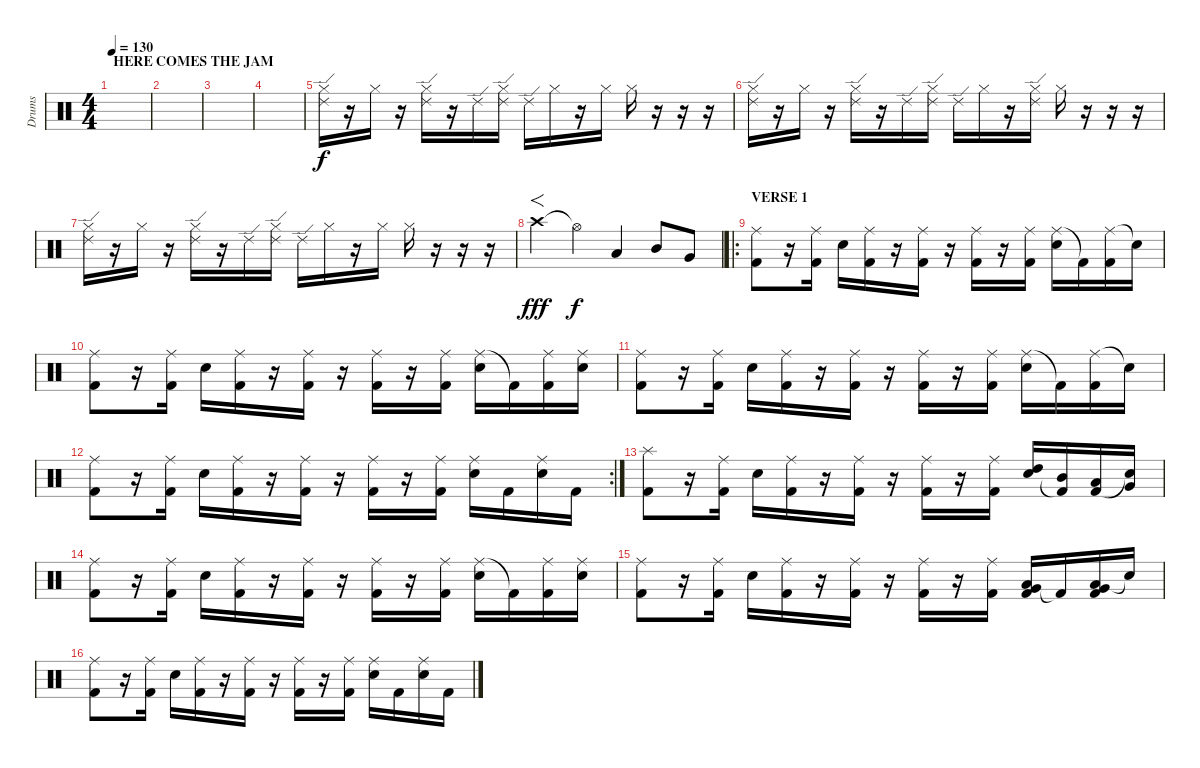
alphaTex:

\track ("Drums" "Drums") {instrument percussion}
\staff {score}
\articulation defaults
\ts (4 4)
\section ("" "HERE COMES THE JAM")
\tempo 130
\clef neutral
\ks c
|
|
|
|
("Ride (edge) 2" "Hi-Hat (closed)").16 r.16 "Hi-Hat (closed)".16 r.16 ("Ride (edge) 2" "Hi-Hat (closed)").16 r.16 "Ride (edge) 2".16 ("Ride (edge) 2" "Hi-Hat (closed)").16 "Ride (edge) 2".16 "Hi-Hat (closed)".16 r.16 "Hi-Hat (closed)".16 "Hi-Hat (closed)".16 r.16 r.16 r.16 |
("Ride (edge) 2" "Hi-Hat (closed)").16 r.16 "Hi-Hat (closed)".16 r.16 ("Ride (edge) 2" "Hi-Hat (closed)").16 r.16 "Ride (edge) 2".16 ("Ride (edge) 2" "Hi-Hat (closed)").16 "Ride (edge) 2".16 "Hi-Hat (closed)".16 r.16 ("Ride (edge) 2" "Hi-Hat (closed)").16 "Hi-Hat (closed)".16 r.16 r.16 r.16 |
("Ride (edge) 2" "Hi-Hat (closed)").16 r.16 "Hi-Hat (closed)".16 r.16 ("Ride (edge) 2" "Hi-Hat (closed)").16 r.16 "Ride (edge) 2".16 ("Ride (edge) 2" "Hi-Hat (closed)").16 "Ride (edge) 2".16 "Hi-Hat (closed)".16 r.16 "Hi-Hat (closed)".16 "Hi-Hat (closed)".16 r.16 r.16 r.16 |
"Crash high (hit)".4{f dy fff} "Hi-Hat (open)"{t}.4{dy f} "Low Floor Tom (hit)".4 "Mid Tom (hit)".8 "Very Low Tom (hit)".8 |
\ro
\section ("" "VERSE 1")
("Ride (middle)" "Kick (hit) 2").8 r.16 ("Ride (middle)" "Kick (hit) 2").16 "Electric Snare (hit)".16 ("Ride (middle)" "Kick (hit) 2").16 r.16 ("Ride (middle)" "Kick (hit) 2").16 r.16 ("Ride (middle)" "Kick (hit) 2").16 r.16 ("Ride (middle)" "Kick (hit) 2").16 ("Ride (middle)" "Electric Snare (hit)").16 "Kick (hit) 2"{t}.16 ("Ride (middle)" "Kick (hit) 2").16 "Snare (hit)"{t}.16 |
("Ride (middle)" "Kick (hit) 2").8 r.16 ("Ride (middle)" "Kick (hit) 2").16 "Electric Snare (hit)".16 ("Ride (middle)" "Kick (hit) 2").16 r.16 ("Ride (middle)" "Kick (hit) 2").16 r.16 ("Ride (middle)" "Kick (hit) 2").16 r.16 ("Ride (middle)" "Kick (hit) 2").16 ("Ride (middle)" "Electric Snare (hit)").16 "Kick (hit) 2"{t}.16 ("Ride (middle)" "Kick (hit) 2").16 ("Ride (middle)" "Electric Snare (hit)").16 |
("Ride (middle)" "Kick (hit) 2").8 r.16 ("Ride (middle)" "Kick (hit) 2").16 "Electric Snare (hit)".16 ("Ride (middle)" "Kick (hit) 2").16 r.16 ("Ride (middle)" "Kick (hit) 2").16 r.16 ("Ride (middle)" "Kick (hit) 2").16 r.16 ("Ride (middle)" "Kick (hit) 2").16 ("Ride (middle)" "Electric Snare (hit)").16 "Kick (hit) 2"{t}.16 ("Ride (middle)" "Kick (hit) 2").16 "Snare (hit)"{t}.16 |
\rc 2
("Ride (middle)" "Kick (hit) 2").8 r.16 ("Ride (middle)" "Kick (hit) 2").16 "Electric Snare (hit)".16 ("Ride (middle)" "Kick (hit) 2").16 r.16 ("Ride (middle)" "Kick (hit) 2").16 r.16 ("Ride (middle)" "Kick (hit) 2").16 r.16 ("Ride (middle)" "Kick (hit) 2").16 ("Ride (middle)" "Electric Snare (hit)").16 "Kick (hit) 2".16 ("Ride (middle)" "Electric Snare (hit)").16 "Kick (hit) 2".16 |
("Splash (hit)" "Kick (hit) 2").8 r.16 ("Ride (middle)" "Kick (hit) 2").16 "Electric Snare (hit)".16 ("Ride (middle)" "Kick (hit) 2").16 r.16 ("Ride (middle)" "Kick (hit) 2").16 r.16 ("Ride (middle)" "Kick (hit) 2").16 r.16 ("Ride (middle)" "Kick (hit) 2").16 ("High Tom (hit)" "Electric Snare (hit)").16 ("Mid Tom (hit)" "Kick (hit) 2"{t}).16 ("Low Tom (hit)" "Kick (hit) 2").16 ("Very Low Tom (hit)" "Snare (hit)"{t}).16 |
("Ride (middle)" "Kick (hit) 2").8 r.16 ("Ride (middle)" "Kick (hit) 2").16 "Electric Snare (hit)".16 ("Ride (middle)" "Kick (hit) 2").16 r.16 ("Ride (middle)" "Kick (hit) 2").16 r.16 ("Ride (middle)" "Kick (hit) 2").16 r.16 ("Ride (middle)" "Kick (hit) 2").16 ("Ride (middle)" "Electric Snare (hit)").16 "Kick (hit) 2"{t}.16 ("Ride (middle)" "Kick (hit) 2").16 ("Ride (middle)" "Electric Snare (hit)").16 |
("Ride (middle)" "Kick (hit) 2").8 r.16 ("Ride (middle)" "Kick (hit) 2").16 "Electric Snare (hit)".16 ("Ride (middle)" "Kick (hit) 2").16 r.16 ("Ride (middle)" "Kick (hit) 2").16 r.16 ("Ride (middle)" "Kick (hit) 2").16 r.16 ("Ride (middle)" "Kick (hit) 2").16 ("Low Floor Tom (hit)" "Very Low Tom (hit)" "Kick (hit) 2").16 "Kick (hit) 2"{t}.16 ("Low Floor Tom (hit)" "Very Low Tom (hit)" "Kick (hit) 2").16 "Snare (hit)"{t}.16 |
("Ride (middle)" "Kick (hit) 2").8 r.16 ("Ride (middle)" "Kick (hit) 2").16 "Electric Snare (hit)".16 ("Ride (middle)" "Kick (hit) 2").16 r.16 ("Ride (middle)" "Kick (hit) 2").16 r.16 ("Ride (middle)" "Kick (hit) 2").16 r.16 ("Ride (middle)" "Kick (hit) 2").16 ("Ride (middle)" "Electric Snare (hit)").16 "Kick (hit) 2".16 ("Ride (middle)" "Electric Snare (hit)").16 "Kick (hit) 2".16
